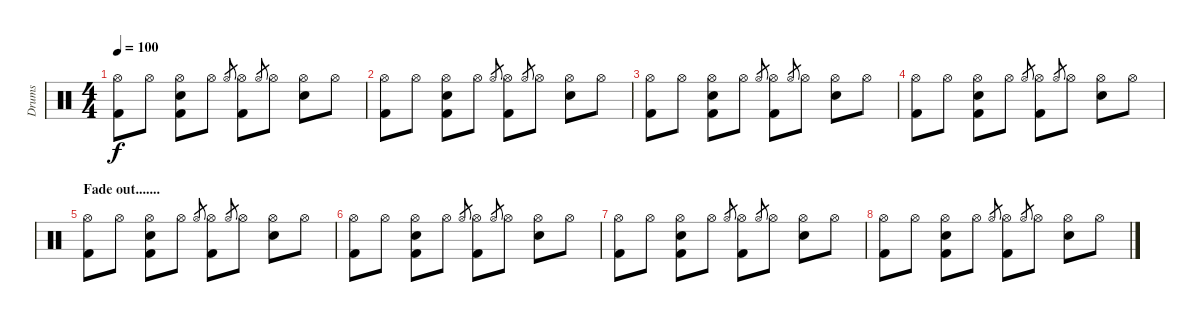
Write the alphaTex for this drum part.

\track ("Drums" "Drums") {instrument percussion}
\staff {score}
\articulation defaults
\ts (4 4)
\tempo 100
\clef neutral
\ks c
("Hi-Hat (open)" "Kick (hit) 2").8{dy f} "Hi-Hat (open)".8 ("Electric Snare (hit)" "Hi-Hat (open)" "Kick (hit) 2").8 "Hi-Hat (open)".8 "Hi-Hat (open)".8{gr} ("Hi-Hat (open)" "Kick (hit) 2").8 "Hi-Hat (open)".8{gr} "Hi-Hat (open)".8 ("Electric Snare (hit)" "Hi-Hat (open)").8 "Hi-Hat (open)".8 |
("Hi-Hat (open)" "Kick (hit) 2").8 "Hi-Hat (open)".8 ("Electric Snare (hit)" "Hi-Hat (open)" "Kick (hit) 2").8 "Hi-Hat (open)".8 "Hi-Hat (open)".8{gr} ("Hi-Hat (open)" "Kick (hit) 2").8 "Hi-Hat (open)".8{gr} "Hi-Hat (open)".8 ("Electric Snare (hit)" "Hi-Hat (open)").8 "Hi-Hat (open)".8 |
("Hi-Hat (open)" "Kick (hit) 2").8 "Hi-Hat (open)".8 ("Electric Snare (hit)" "Hi-Hat (open)" "Kick (hit) 2").8 "Hi-Hat (open)".8 "Hi-Hat (open)".8{gr} ("Hi-Hat (open)" "Kick (hit) 2").8 "Hi-Hat (open)".8{gr} "Hi-Hat (open)".8 ("Electric Snare (hit)" "Hi-Hat (open)").8 "Hi-Hat (open)".8 |
("Hi-Hat (open)" "Kick (hit) 2").8 "Hi-Hat (open)".8 ("Electric Snare (hit)" "Hi-Hat (open)" "Kick (hit) 2").8 "Hi-Hat (open)".8 "Hi-Hat (open)".8{gr} ("Hi-Hat (open)" "Kick (hit) 2").8 "Hi-Hat (open)".8{gr} "Hi-Hat (open)".8 ("Electric Snare (hit)" "Hi-Hat (open)").8 "Hi-Hat (open)".8 |
\section ("" "Fade out.......")
("Hi-Hat (open)" "Kick (hit) 2").8 "Hi-Hat (open)".8 ("Electric Snare (hit)" "Hi-Hat (open)" "Kick (hit) 2").8 "Hi-Hat (open)".8 "Hi-Hat (open)".8{gr} ("Hi-Hat (open)" "Kick (hit) 2").8 "Hi-Hat (open)".8{gr} "Hi-Hat (open)".8 ("Electric Snare (hit)" "Hi-Hat (open)").8 "Hi-Hat (open)".8 |
("Hi-Hat (open)" "Kick (hit) 2").8 "Hi-Hat (open)".8 ("Electric Snare (hit)" "Hi-Hat (open)" "Kick (hit) 2").8 "Hi-Hat (open)".8 "Hi-Hat (open)".8{gr} ("Hi-Hat (open)" "Kick (hit) 2").8 "Hi-Hat (open)".8{gr} "Hi-Hat (open)".8 ("Electric Snare (hit)" "Hi-Hat (open)").8 "Hi-Hat (open)".8 |
("Hi-Hat (open)" "Kick (hit) 2").8 "Hi-Hat (open)".8 ("Electric Snare (hit)" "Hi-Hat (open)" "Kick (hit) 2").8 "Hi-Hat (open)".8 "Hi-Hat (open)".8{gr} ("Hi-Hat (open)" "Kick (hit) 2").8 "Hi-Hat (open)".8{gr} "Hi-Hat (open)".8 ("Electric Snare (hit)" "Hi-Hat (open)").8 "Hi-Hat (open)".8 |
("Hi-Hat (open)" "Kick (hit) 2").8 "Hi-Hat (open)".8 ("Electric Snare (hit)" "Hi-Hat (open)" "Kick (hit) 2").8 "Hi-Hat (open)".8 "Hi-Hat (open)".8{gr} ("Hi-Hat (open)" "Kick (hit) 2").8 "Hi-Hat (open)".8{gr} "Hi-Hat (open)".8 ("Electric Snare (hit)" "Hi-Hat (open)").8 "Hi-Hat (open)".8
